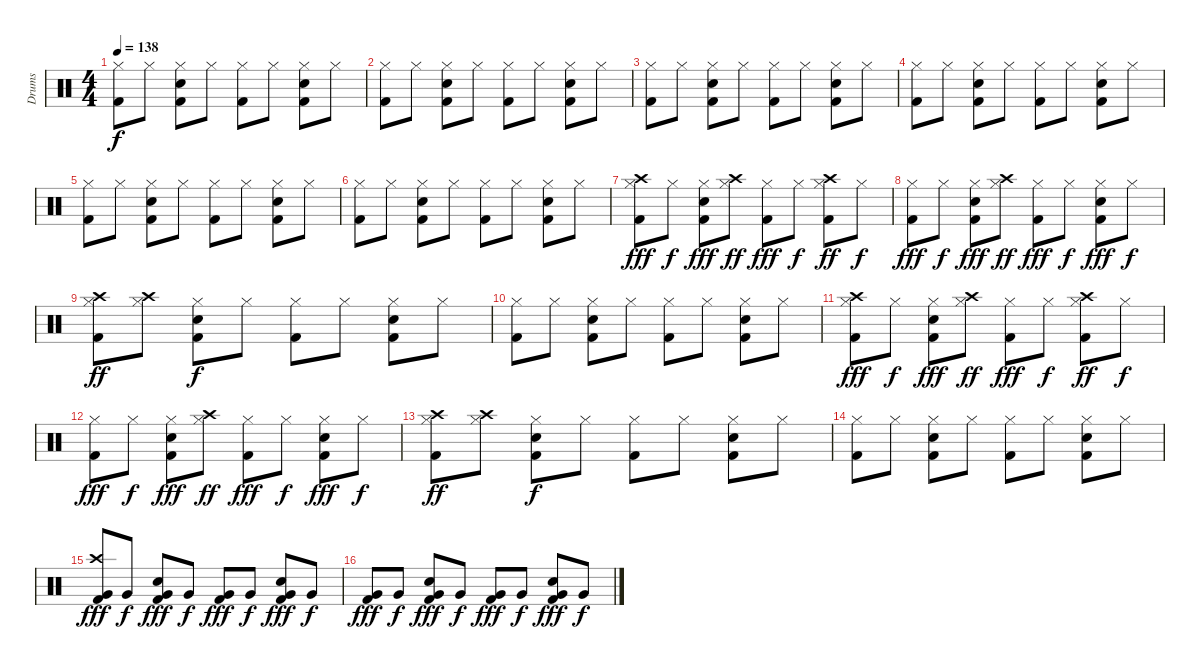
\track ("Drums" "Drums") {instrument percussion}
\staff {score}
\articulation defaults
\ts (4 4)
\tempo 138
\clef neutral
\ks c
("Hi-Hat (closed)" "Kick (hit) 2").8{dy f} "Hi-Hat (closed)".8 ("Hi-Hat (closed)" "Electric Snare (hit)" "Kick (hit) 2").8 "Hi-Hat (closed)".8 ("Hi-Hat (closed)" "Kick (hit) 2").8 "Hi-Hat (closed)".8 ("Hi-Hat (closed)" "Electric Snare (hit)" "Kick (hit) 2").8 "Hi-Hat (closed)".8 |
("Hi-Hat (closed)" "Kick (hit) 2").8 "Hi-Hat (closed)".8 ("Hi-Hat (closed)" "Electric Snare (hit)" "Kick (hit) 2").8 "Hi-Hat (closed)".8 ("Hi-Hat (closed)" "Kick (hit) 2").8 "Hi-Hat (closed)".8 ("Hi-Hat (closed)" "Electric Snare (hit)" "Kick (hit) 2").8 "Hi-Hat (closed)".8 |
("Hi-Hat (closed)" "Kick (hit) 2").8 "Hi-Hat (closed)".8 ("Hi-Hat (closed)" "Electric Snare (hit)" "Kick (hit) 2").8 "Hi-Hat (closed)".8 ("Hi-Hat (closed)" "Kick (hit) 2").8 "Hi-Hat (closed)".8 ("Hi-Hat (closed)" "Electric Snare (hit)" "Kick (hit) 2").8 "Hi-Hat (closed)".8 |
("Hi-Hat (closed)" "Kick (hit) 2").8 "Hi-Hat (closed)".8 ("Hi-Hat (closed)" "Electric Snare (hit)" "Kick (hit) 2").8 "Hi-Hat (closed)".8 ("Hi-Hat (closed)" "Kick (hit) 2").8 "Hi-Hat (closed)".8 ("Hi-Hat (closed)" "Electric Snare (hit)" "Kick (hit) 2").8 "Hi-Hat (closed)".8 |
("Hi-Hat (closed)" "Kick (hit) 2").8 "Hi-Hat (closed)".8 ("Hi-Hat (closed)" "Electric Snare (hit)" "Kick (hit) 2").8 "Hi-Hat (closed)".8 ("Hi-Hat (closed)" "Kick (hit) 2").8 "Hi-Hat (closed)".8 ("Hi-Hat (closed)" "Electric Snare (hit)" "Kick (hit) 2").8 "Hi-Hat (closed)".8 |
("Hi-Hat (closed)" "Kick (hit) 2").8 "Hi-Hat (closed)".8 ("Hi-Hat (closed)" "Electric Snare (hit)" "Kick (hit) 2").8 "Hi-Hat (closed)".8 ("Hi-Hat (closed)" "Kick (hit) 2").8 "Hi-Hat (closed)".8 ("Hi-Hat (closed)" "Electric Snare (hit)" "Kick (hit) 2").8 "Hi-Hat (closed)".8 |
("Crash high (hit)" "Hi-Hat (closed)" "Kick (hit) 2").8{dy fff} "Hi-Hat (closed)".8{dy f} ("Hi-Hat (closed)" "Electric Snare (hit)" "Kick (hit) 2").8{dy fff} ("Crash high (hit)" "Hi-Hat (closed)").8{dy ff} ("Hi-Hat (closed)" "Kick (hit) 2").8{dy fff} "Hi-Hat (closed)".8{dy f} ("Crash high (hit)" "Hi-Hat (closed)" "Kick (hit) 2").8{dy ff} "Hi-Hat (closed)".8{dy f} |
("Hi-Hat (closed)" "Kick (hit) 2").8{dy fff} "Hi-Hat (closed)".8{dy f} ("Hi-Hat (closed)" "Electric Snare (hit)" "Kick (hit) 2").8{dy fff} ("Crash high (hit)" "Hi-Hat (closed)").8{dy ff} ("Hi-Hat (closed)" "Kick (hit) 2").8{dy fff} "Hi-Hat (closed)".8{dy f} ("Hi-Hat (closed)" "Electric Snare (hit)" "Kick (hit) 2").8{dy fff} "Hi-Hat (closed)".8{dy f} |
("Crash high (hit)" "Hi-Hat (closed)" "Kick (hit) 2").8{dy ff} ("Crash high (hit)" "Hi-Hat (closed)").8 ("Hi-Hat (closed)" "Electric Snare (hit)" "Kick (hit) 2").8{dy f} "Hi-Hat (closed)".8 ("Hi-Hat (closed)" "Kick (hit) 2").8 "Hi-Hat (closed)".8 ("Hi-Hat (closed)" "Electric Snare (hit)" "Kick (hit) 2").8 "Hi-Hat (closed)".8 |
("Hi-Hat (closed)" "Kick (hit) 2").8 "Hi-Hat (closed)".8 ("Hi-Hat (closed)" "Electric Snare (hit)" "Kick (hit) 2").8 "Hi-Hat (closed)".8 ("Hi-Hat (closed)" "Kick (hit) 2").8 "Hi-Hat (closed)".8 ("Hi-Hat (closed)" "Electric Snare (hit)" "Kick (hit) 2").8 "Hi-Hat (closed)".8 |
("Crash high (hit)" "Hi-Hat (closed)" "Kick (hit) 2").8{dy fff} "Hi-Hat (closed)".8{dy f} ("Hi-Hat (closed)" "Electric Snare (hit)" "Kick (hit) 2").8{dy fff} ("Crash high (hit)" "Hi-Hat (closed)").8{dy ff} ("Hi-Hat (closed)" "Kick (hit) 2").8{dy fff} "Hi-Hat (closed)".8{dy f} ("Crash high (hit)" "Hi-Hat (closed)" "Kick (hit) 2").8{dy ff} "Hi-Hat (closed)".8{dy f} |
("Hi-Hat (closed)" "Kick (hit) 2").8{dy fff} "Hi-Hat (closed)".8{dy f} ("Hi-Hat (closed)" "Electric Snare (hit)" "Kick (hit) 2").8{dy fff} ("Crash high (hit)" "Hi-Hat (closed)").8{dy ff} ("Hi-Hat (closed)" "Kick (hit) 2").8{dy fff} "Hi-Hat (closed)".8{dy f} ("Hi-Hat (closed)" "Electric Snare (hit)" "Kick (hit) 2").8{dy fff} "Hi-Hat (closed)".8{dy f} |
("Crash high (hit)" "Hi-Hat (closed)" "Kick (hit) 2").8{dy ff} ("Crash high (hit)" "Hi-Hat (closed)").8 ("Hi-Hat (closed)" "Electric Snare (hit)" "Kick (hit) 2").8{dy f} "Hi-Hat (closed)".8 ("Hi-Hat (closed)" "Kick (hit) 2").8 "Hi-Hat (closed)".8 ("Hi-Hat (closed)" "Electric Snare (hit)" "Kick (hit) 2").8 "Hi-Hat (closed)".8 |
("Hi-Hat (closed)" "Kick (hit) 2").8 "Hi-Hat (closed)".8 ("Hi-Hat (closed)" "Electric Snare (hit)" "Kick (hit) 2").8 "Hi-Hat (closed)".8 ("Hi-Hat (closed)" "Kick (hit) 2").8 "Hi-Hat (closed)".8 ("Hi-Hat (closed)" "Electric Snare (hit)" "Kick (hit) 2").8 "Hi-Hat (closed)".8 |
("Crash high (hit)" "Very Low Tom (hit)" "Kick (hit) 2").8{dy fff} "Very Low Tom (hit)".8{dy f} ("Electric Snare (hit)" "Very Low Tom (hit)" "Kick (hit) 2").8{dy fff} "Very Low Tom (hit)".8{dy f} ("Very Low Tom (hit)" "Kick (hit) 2").8{dy fff} "Very Low Tom (hit)".8{dy f} ("Electric Snare (hit)" "Very Low Tom (hit)" "Kick (hit) 2").8{dy fff} "Very Low Tom (hit)".8{dy f} |
("Very Low Tom (hit)" "Kick (hit) 2").8{dy fff} "Very Low Tom (hit)".8{dy f} ("Electric Snare (hit)" "Very Low Tom (hit)" "Kick (hit) 2").8{dy fff} "Very Low Tom (hit)".8{dy f} ("Very Low Tom (hit)" "Kick (hit) 2").8{dy fff} "Very Low Tom (hit)".8{dy f} ("Electric Snare (hit)" "Very Low Tom (hit)" "Kick (hit) 2").8{dy fff} "Very Low Tom (hit)".8{dy f}
